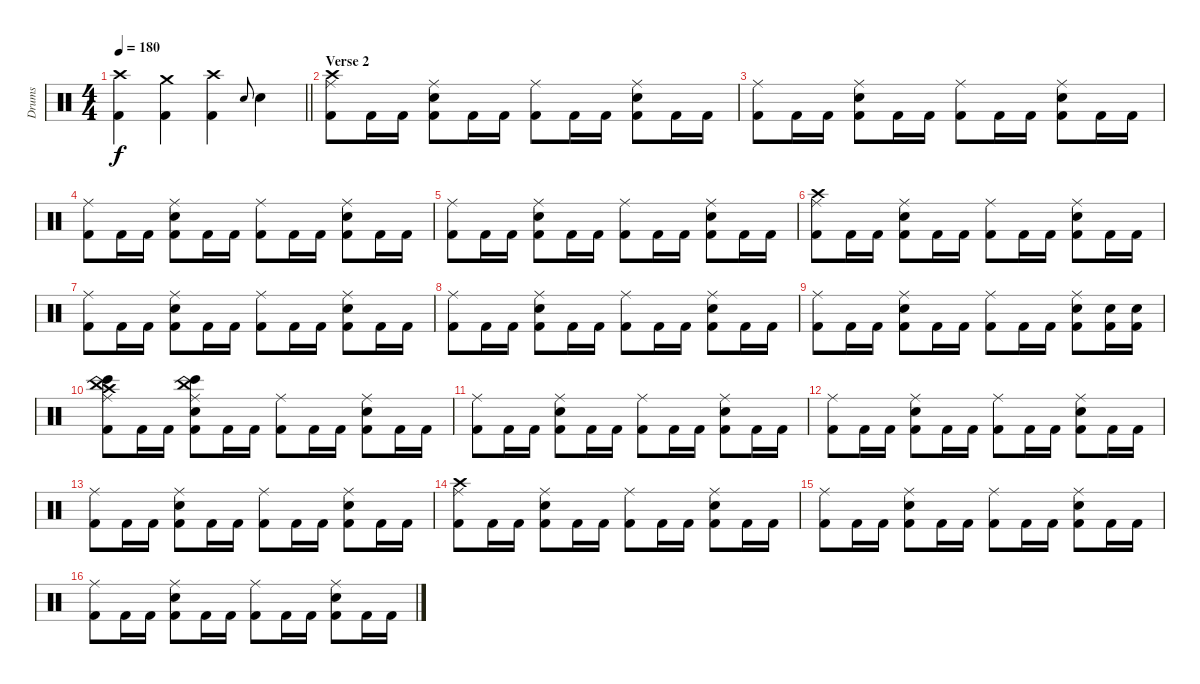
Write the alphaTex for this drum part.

\track ("Drums" "Drums") {instrument percussion}
\staff {score}
\articulation defaults
\ts (4 4)
\tempo 180
\clef neutral
\barLineRight lightlight
\ks c
("Crash high (hit)" "Kick (hit) 2").4{dy f} ("Crash medium (hit)" "Kick (hit) 2").4 ("Crash high (hit)" "Kick (hit) 2").4 "Snare (hit) 2".8{gr onbeat} "Snare (hit) 2".4 |
\section ("" "Verse 2")
("Crash high (hit)" "Ride (middle)" "Kick (hit) 2").8 "Kick (hit) 2".16 "Kick (hit) 2".16 ("Ride (middle)" "Snare (hit) 2" "Kick (hit) 2").8 "Kick (hit) 2".16 "Kick (hit) 2".16 ("Ride (middle)" "Kick (hit) 2").8 "Kick (hit) 2".16 "Kick (hit) 2".16 ("Ride (middle)" "Snare (hit) 2" "Kick (hit) 2").8 "Kick (hit) 2".16 "Kick (hit) 2".16 |
("Ride (middle)" "Kick (hit) 2").8 "Kick (hit) 2".16 "Kick (hit) 2".16 ("Ride (middle)" "Snare (hit) 2" "Kick (hit) 2").8 "Kick (hit) 2".16 "Kick (hit) 2".16 ("Ride (middle)" "Kick (hit) 2").8 "Kick (hit) 2".16 "Kick (hit) 2".16 ("Ride (middle)" "Snare (hit) 2" "Kick (hit) 2").8 "Kick (hit) 2".16 "Kick (hit) 2".16 |
("Ride (middle)" "Kick (hit) 2").8 "Kick (hit) 2".16 "Kick (hit) 2".16 ("Ride (middle)" "Snare (hit) 2" "Kick (hit) 2").8 "Kick (hit) 2".16 "Kick (hit) 2".16 ("Ride (middle)" "Kick (hit) 2").8 "Kick (hit) 2".16 "Kick (hit) 2".16 ("Ride (middle)" "Snare (hit) 2" "Kick (hit) 2").8 "Kick (hit) 2".16 "Kick (hit) 2".16 |
("Ride (middle)" "Kick (hit) 2").8 "Kick (hit) 2".16 "Kick (hit) 2".16 ("Ride (middle)" "Snare (hit) 2" "Kick (hit) 2").8 "Kick (hit) 2".16 "Kick (hit) 2".16 ("Ride (middle)" "Kick (hit) 2").8 "Kick (hit) 2".16 "Kick (hit) 2".16 ("Ride (middle)" "Snare (hit) 2" "Kick (hit) 2").8 "Kick (hit) 2".16 "Kick (hit) 2".16 |
("Crash high (hit)" "Ride (middle)" "Kick (hit) 2").8 "Kick (hit) 2".16 "Kick (hit) 2".16 ("Ride (middle)" "Snare (hit) 2" "Kick (hit) 2").8 "Kick (hit) 2".16 "Kick (hit) 2".16 ("Ride (middle)" "Kick (hit) 2").8 "Kick (hit) 2".16 "Kick (hit) 2".16 ("Ride (middle)" "Snare (hit) 2" "Kick (hit) 2").8 "Kick (hit) 2".16 "Kick (hit) 2".16 |
("Ride (middle)" "Kick (hit) 2").8 "Kick (hit) 2".16 "Kick (hit) 2".16 ("Ride (middle)" "Snare (hit) 2" "Kick (hit) 2").8 "Kick (hit) 2".16 "Kick (hit) 2".16 ("Ride (middle)" "Kick (hit) 2").8 "Kick (hit) 2".16 "Kick (hit) 2".16 ("Ride (middle)" "Snare (hit) 2" "Kick (hit) 2").8 "Kick (hit) 2".16 "Kick (hit) 2".16 |
("Ride (middle)" "Kick (hit) 2").8 "Kick (hit) 2".16 "Kick (hit) 2".16 ("Ride (middle)" "Snare (hit) 2" "Kick (hit) 2").8 "Kick (hit) 2".16 "Kick (hit) 2".16 ("Ride (middle)" "Kick (hit) 2").8 "Kick (hit) 2".16 "Kick (hit) 2".16 ("Ride (middle)" "Snare (hit) 2" "Kick (hit) 2").8 "Kick (hit) 2".16 "Kick (hit) 2".16 |
("Ride (middle)" "Kick (hit) 2").8 "Kick (hit) 2".16 "Kick (hit) 2".16 ("Ride (middle)" "Snare (hit) 2" "Kick (hit) 2").8 "Kick (hit) 2".16 "Kick (hit) 2".16 ("Ride (middle)" "Kick (hit) 2").8 "Kick (hit) 2".16 "Kick (hit) 2".16 ("Ride (middle)" "Snare (hit) 2" "Kick (hit) 2").8 ("Snare (hit) 2" "Kick (hit) 2").16 ("Snare (hit) 2" "Kick (hit) 2").16 |
("Crash high (hit)" "Bongo High (hit)" "Ride (middle)" "China (hit)" "Kick (hit) 2").8 "Kick (hit) 2".16 "Kick (hit) 2".16 ("Bongo High (hit)" "Ride (middle)" "China (hit)" "Snare (hit) 2" "Kick (hit) 2").8 "Kick (hit) 2".16 "Kick (hit) 2".16 ("Ride (middle)" "Kick (hit) 2").8 "Kick (hit) 2".16 "Kick (hit) 2".16 ("Ride (middle)" "Snare (hit) 2" "Kick (hit) 2").8 "Kick (hit) 2".16 "Kick (hit) 2".16 |
("Ride (middle)" "Kick (hit) 2").8 "Kick (hit) 2".16 "Kick (hit) 2".16 ("Ride (middle)" "Snare (hit) 2" "Kick (hit) 2").8 "Kick (hit) 2".16 "Kick (hit) 2".16 ("Ride (middle)" "Kick (hit) 2").8 "Kick (hit) 2".16 "Kick (hit) 2".16 ("Ride (middle)" "Snare (hit) 2" "Kick (hit) 2").8 "Kick (hit) 2".16 "Kick (hit) 2".16 |
("Ride (middle)" "Kick (hit) 2").8 "Kick (hit) 2".16 "Kick (hit) 2".16 ("Ride (middle)" "Snare (hit) 2" "Kick (hit) 2").8 "Kick (hit) 2".16 "Kick (hit) 2".16 ("Ride (middle)" "Kick (hit) 2").8 "Kick (hit) 2".16 "Kick (hit) 2".16 ("Ride (middle)" "Snare (hit) 2" "Kick (hit) 2").8 "Kick (hit) 2".16 "Kick (hit) 2".16 |
("Ride (middle)" "Kick (hit) 2").8 "Kick (hit) 2".16 "Kick (hit) 2".16 ("Ride (middle)" "Snare (hit) 2" "Kick (hit) 2").8 "Kick (hit) 2".16 "Kick (hit) 2".16 ("Ride (middle)" "Kick (hit) 2").8 "Kick (hit) 2".16 "Kick (hit) 2".16 ("Ride (middle)" "Snare (hit) 2" "Kick (hit) 2").8 "Kick (hit) 2".16 "Kick (hit) 2".16 |
("Crash high (hit)" "Ride (middle)" "Kick (hit) 2").8 "Kick (hit) 2".16 "Kick (hit) 2".16 ("Ride (middle)" "Snare (hit) 2" "Kick (hit) 2").8 "Kick (hit) 2".16 "Kick (hit) 2".16 ("Ride (middle)" "Kick (hit) 2").8 "Kick (hit) 2".16 "Kick (hit) 2".16 ("Ride (middle)" "Snare (hit) 2" "Kick (hit) 2").8 "Kick (hit) 2".16 "Kick (hit) 2".16 |
("Ride (middle)" "Kick (hit) 2").8 "Kick (hit) 2".16 "Kick (hit) 2".16 ("Ride (middle)" "Snare (hit) 2" "Kick (hit) 2").8 "Kick (hit) 2".16 "Kick (hit) 2".16 ("Ride (middle)" "Kick (hit) 2").8 "Kick (hit) 2".16 "Kick (hit) 2".16 ("Ride (middle)" "Snare (hit) 2" "Kick (hit) 2").8 "Kick (hit) 2".16 "Kick (hit) 2".16 |
("Ride (middle)" "Kick (hit) 2").8 "Kick (hit) 2".16 "Kick (hit) 2".16 ("Ride (middle)" "Snare (hit) 2" "Kick (hit) 2").8 "Kick (hit) 2".16 "Kick (hit) 2".16 ("Ride (middle)" "Kick (hit) 2").8 "Kick (hit) 2".16 "Kick (hit) 2".16 ("Ride (middle)" "Snare (hit) 2" "Kick (hit) 2").8 "Kick (hit) 2".16 "Kick (hit) 2".16
